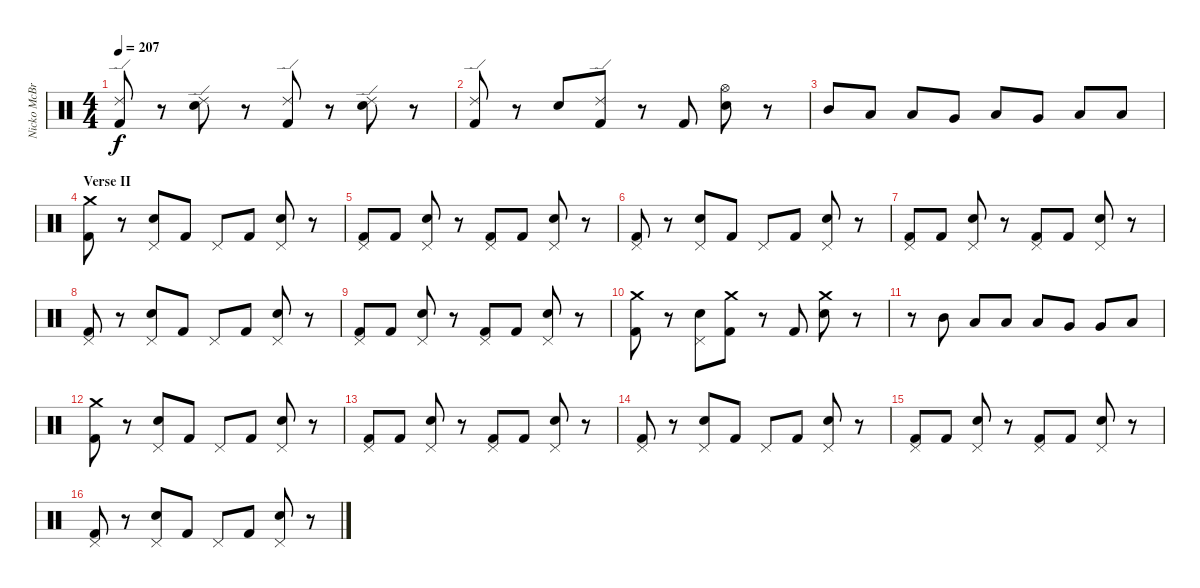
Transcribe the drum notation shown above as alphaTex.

\track ("Nicko McBrain" "Nicko McBr") {instrument percussion}
\staff {score}
\articulation defaults
\ts (4 4)
\tempo 207
\clef neutral
\ks c
("Ride (edge) 2" "Kick (hit) 2").8{dy f} r.8 ("Ride (edge) 2" "Snare (hit) 2").8 r.8 ("Ride (edge) 2" "Kick (hit) 2").8 r.8 ("Ride (edge) 2" "Snare (hit) 2").8 r.8 |
("Ride (edge) 2" "Kick (hit) 2").8 r.8 "Snare (hit) 2".8 ("Ride (edge) 2" "Kick (hit) 2").8 r.8 "Kick (hit) 2".8 ("Hi-Hat (open)" "Snare (hit) 2").8 r.8 |
"Mid Tom (hit)".8 "Low Tom (hit)".8 "Low Tom (hit)".8 "Very Low Tom (hit)".8 "Low Tom (hit)".8 "Very Low Tom (hit)".8 "Low Floor Tom (hit)".8 "Low Floor Tom (hit)".8 |
\section ("" "Verse II")
("Crash medium (hit)" "Kick (hit) 2").8 r.8 ("Pedal Hi-Hat (hit)" "Snare (hit) 2").8 "Kick (hit) 2".8 "Pedal Hi-Hat (hit)".8 "Kick (hit) 2".8 ("Pedal Hi-Hat (hit)" "Snare (hit) 2").8 r.8 |
("Pedal Hi-Hat (hit)" "Kick (hit) 2").8 "Kick (hit) 2".8 ("Pedal Hi-Hat (hit)" "Snare (hit) 2").8 r.8 ("Pedal Hi-Hat (hit)" "Kick (hit) 2").8 "Kick (hit) 2".8 ("Pedal Hi-Hat (hit)" "Snare (hit) 2").8 r.8 |
("Pedal Hi-Hat (hit)" "Kick (hit) 2").8 r.8 ("Pedal Hi-Hat (hit)" "Snare (hit) 2").8 "Kick (hit) 2".8 "Pedal Hi-Hat (hit)".8 "Kick (hit) 2".8 ("Pedal Hi-Hat (hit)" "Snare (hit) 2").8 r.8 |
("Pedal Hi-Hat (hit)" "Kick (hit) 2").8 "Kick (hit) 2".8 ("Pedal Hi-Hat (hit)" "Snare (hit) 2").8 r.8 ("Pedal Hi-Hat (hit)" "Kick (hit) 2").8 "Kick (hit) 2".8 ("Pedal Hi-Hat (hit)" "Snare (hit) 2").8 r.8 |
("Pedal Hi-Hat (hit)" "Kick (hit) 2").8 r.8 ("Pedal Hi-Hat (hit)" "Snare (hit) 2").8 "Kick (hit) 2".8 "Pedal Hi-Hat (hit)".8 "Kick (hit) 2".8 ("Pedal Hi-Hat (hit)" "Snare (hit) 2").8 r.8 |
("Pedal Hi-Hat (hit)" "Kick (hit) 2").8 "Kick (hit) 2".8 ("Pedal Hi-Hat (hit)" "Snare (hit) 2").8 r.8 ("Pedal Hi-Hat (hit)" "Kick (hit) 2").8 "Kick (hit) 2".8 ("Pedal Hi-Hat (hit)" "Snare (hit) 2").8 r.8 |
("Crash medium (hit)" "Kick (hit) 2").8 r.8 ("Pedal Hi-Hat (hit)" "Snare (hit) 2").8 ("Crash medium (hit)" "Kick (hit) 2").8 r.8 "Kick (hit) 2".8 ("Crash medium (hit)" "Snare (hit) 2").8 r.8 |
r.8 "Mid Tom (hit)".8 "Low Tom (hit)".8 "Low Tom (hit)".8 "Low Tom (hit)".8 "Very Low Tom (hit)".8 "Very Low Tom (hit)".8 "Low Floor Tom (hit)".8 |
("Crash medium (hit)" "Kick (hit) 2").8 r.8 ("Pedal Hi-Hat (hit)" "Snare (hit) 2").8 "Kick (hit) 2".8 "Pedal Hi-Hat (hit)".8 "Kick (hit) 2".8 ("Pedal Hi-Hat (hit)" "Snare (hit) 2").8 r.8 |
("Pedal Hi-Hat (hit)" "Kick (hit) 2").8 "Kick (hit) 2".8 ("Pedal Hi-Hat (hit)" "Snare (hit) 2").8 r.8 ("Pedal Hi-Hat (hit)" "Kick (hit) 2").8 "Kick (hit) 2".8 ("Pedal Hi-Hat (hit)" "Snare (hit) 2").8 r.8 |
("Pedal Hi-Hat (hit)" "Kick (hit) 2").8 r.8 ("Pedal Hi-Hat (hit)" "Snare (hit) 2").8 "Kick (hit) 2".8 "Pedal Hi-Hat (hit)".8 "Kick (hit) 2".8 ("Pedal Hi-Hat (hit)" "Snare (hit) 2").8 r.8 |
("Pedal Hi-Hat (hit)" "Kick (hit) 2").8 "Kick (hit) 2".8 ("Pedal Hi-Hat (hit)" "Snare (hit) 2").8 r.8 ("Pedal Hi-Hat (hit)" "Kick (hit) 2").8 "Kick (hit) 2".8 ("Pedal Hi-Hat (hit)" "Snare (hit) 2").8 r.8 |
("Pedal Hi-Hat (hit)" "Kick (hit) 2").8 r.8 ("Pedal Hi-Hat (hit)" "Snare (hit) 2").8 "Kick (hit) 2".8 "Pedal Hi-Hat (hit)".8 "Kick (hit) 2".8 ("Pedal Hi-Hat (hit)" "Snare (hit) 2").8 r.8
